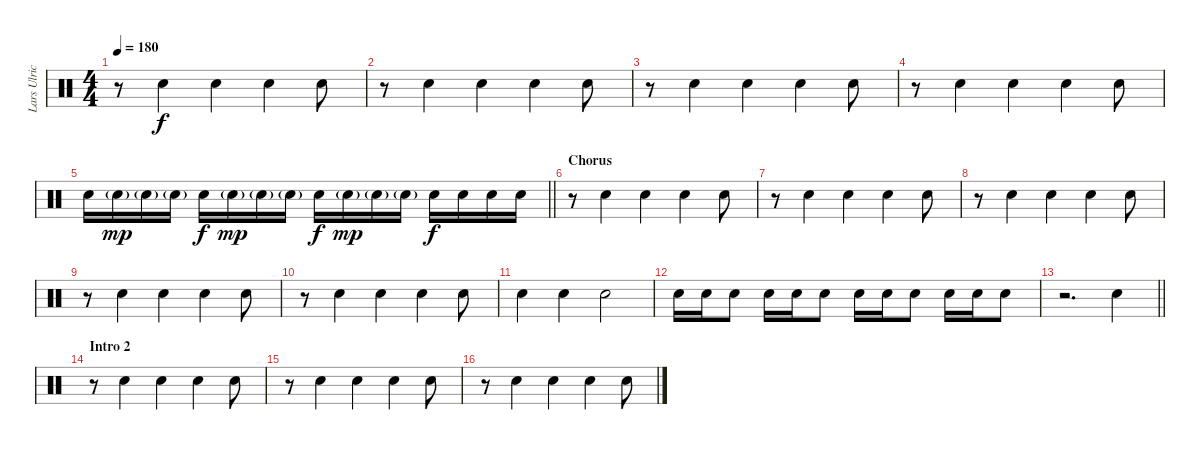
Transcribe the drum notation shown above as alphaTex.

\track ("Lars Ulrich" "Lars Ulric") {instrument percussion}
\staff {score}
\articulation defaults
\ts (4 4)
\tempo 180
\clef neutral
\ks c
r.8{dy f} "Snare (hit) 2".4 "Snare (hit) 2".4 "Snare (hit) 2".4 "Snare (hit) 2".8 |
r.8 "Snare (hit) 2".4 "Snare (hit) 2".4 "Snare (hit) 2".4 "Snare (hit) 2".8 |
r.8 "Snare (hit) 2".4 "Snare (hit) 2".4 "Snare (hit) 2".4 "Snare (hit) 2".8 |
r.8 "Snare (hit) 2".4 "Snare (hit) 2".4 "Snare (hit) 2".4 "Snare (hit) 2".8 |
\barLineRight lightlight "Snare (hit) 2".16 "Snare (hit) 2"{g}.16{dy mp} "Snare (hit) 2"{g}.16 "Snare (hit) 2"{g}.16 "Snare (hit) 2".16{dy f} "Snare (hit) 2"{g}.16{dy mp} "Snare (hit) 2"{g}.16 "Snare (hit) 2"{g}.16 "Snare (hit) 2".16{dy f} "Snare (hit) 2"{g}.16{dy mp} "Snare (hit) 2"{g}.16 "Snare (hit) 2"{g}.16 "Snare (hit) 2".16{dy f} "Snare (hit) 2".16 "Snare (hit) 2".16 "Snare (hit) 2".16
|
\section ("" "Chorus")
r.8 "Snare (hit) 2".4 "Snare (hit) 2".4 "Snare (hit) 2".4 "Snare (hit) 2".8 |
r.8 "Snare (hit) 2".4 "Snare (hit) 2".4 "Snare (hit) 2".4 "Snare (hit) 2".8 |
r.8 "Snare (hit) 2".4 "Snare (hit) 2".4 "Snare (hit) 2".4 "Snare (hit) 2".8 |
r.8 "Snare (hit) 2".4 "Snare (hit) 2".4 "Snare (hit) 2".4 "Snare (hit) 2".8 |
r.8 "Snare (hit) 2".4 "Snare (hit) 2".4 "Snare (hit) 2".4 "Snare (hit) 2".8 |
"Snare (hit) 2".4 "Snare (hit) 2".4 "Snare (hit) 2".2 |
"Snare (hit) 2".16 "Snare (hit) 2".16 "Snare (hit) 2".8 "Snare (hit) 2".16 "Snare (hit) 2".16 "Snare (hit) 2".8 "Snare (hit) 2".16 "Snare (hit) 2".16 "Snare (hit) 2".8 "Snare (hit) 2".16 "Snare (hit) 2".16 "Snare (hit) 2".8 |
\barLineRight lightlight
r.2{d} "Snare (hit) 2".4 |
\section ("" "Intro 2")
r.8 "Snare (hit) 2".4 "Snare (hit) 2".4 "Snare (hit) 2".4 "Snare (hit) 2".8 |
r.8 "Snare (hit) 2".4 "Snare (hit) 2".4 "Snare (hit) 2".4 "Snare (hit) 2".8 |
r.8 "Snare (hit) 2".4 "Snare (hit) 2".4 "Snare (hit) 2".4 "Snare (hit) 2".8
